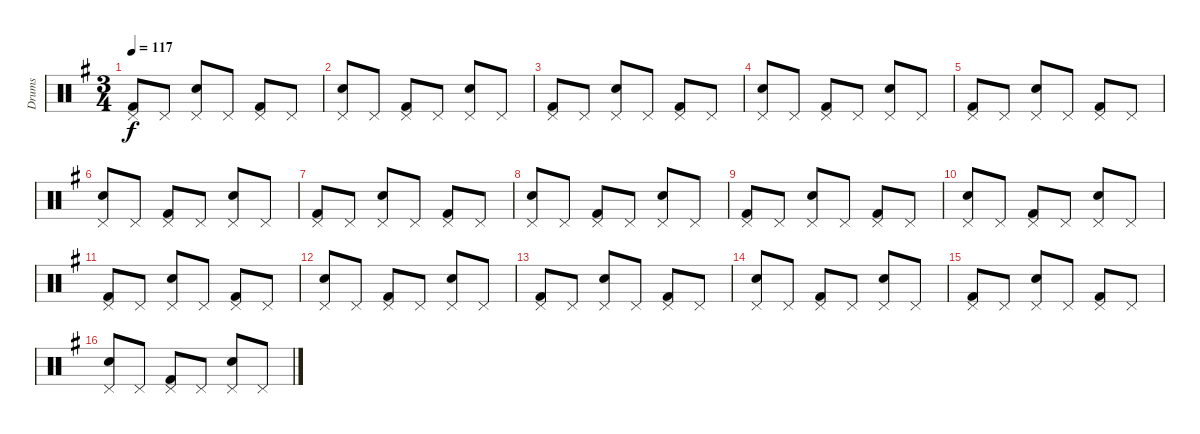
\track ("Drums" "Drums") {instrument percussion}
\staff {score}
\articulation defaults
\ts (3 4)
\tempo 117
\clef neutral
\ks g
("Pedal Hi-Hat (hit)" "Kick (hit) 2").8{dy f} "Pedal Hi-Hat (hit)".8 ("Pedal Hi-Hat (hit)" "Snare (hit) 2").8 "Pedal Hi-Hat (hit)".8 ("Pedal Hi-Hat (hit)" "Kick (hit) 2").8 "Pedal Hi-Hat (hit)".8 |
("Pedal Hi-Hat (hit)" "Snare (hit) 2").8 "Pedal Hi-Hat (hit)".8 ("Pedal Hi-Hat (hit)" "Kick (hit) 2").8 "Pedal Hi-Hat (hit)".8 ("Pedal Hi-Hat (hit)" "Snare (hit) 2").8 "Pedal Hi-Hat (hit)".8 |
("Pedal Hi-Hat (hit)" "Kick (hit) 2").8 "Pedal Hi-Hat (hit)".8 ("Pedal Hi-Hat (hit)" "Snare (hit) 2").8 "Pedal Hi-Hat (hit)".8 ("Pedal Hi-Hat (hit)" "Kick (hit) 2").8 "Pedal Hi-Hat (hit)".8 |
("Pedal Hi-Hat (hit)" "Snare (hit) 2").8 "Pedal Hi-Hat (hit)".8 ("Pedal Hi-Hat (hit)" "Kick (hit) 2").8 "Pedal Hi-Hat (hit)".8 ("Pedal Hi-Hat (hit)" "Snare (hit) 2").8 "Pedal Hi-Hat (hit)".8 |
("Pedal Hi-Hat (hit)" "Kick (hit) 2").8 "Pedal Hi-Hat (hit)".8 ("Pedal Hi-Hat (hit)" "Snare (hit) 2").8 "Pedal Hi-Hat (hit)".8 ("Pedal Hi-Hat (hit)" "Kick (hit) 2").8 "Pedal Hi-Hat (hit)".8 |
("Pedal Hi-Hat (hit)" "Snare (hit) 2").8 "Pedal Hi-Hat (hit)".8 ("Pedal Hi-Hat (hit)" "Kick (hit) 2").8 "Pedal Hi-Hat (hit)".8 ("Pedal Hi-Hat (hit)" "Snare (hit) 2").8 "Pedal Hi-Hat (hit)".8 |
("Pedal Hi-Hat (hit)" "Kick (hit) 2").8 "Pedal Hi-Hat (hit)".8 ("Pedal Hi-Hat (hit)" "Snare (hit) 2").8 "Pedal Hi-Hat (hit)".8 ("Pedal Hi-Hat (hit)" "Kick (hit) 2").8 "Pedal Hi-Hat (hit)".8 |
("Pedal Hi-Hat (hit)" "Snare (hit) 2").8 "Pedal Hi-Hat (hit)".8 ("Pedal Hi-Hat (hit)" "Kick (hit) 2").8 "Pedal Hi-Hat (hit)".8 ("Pedal Hi-Hat (hit)" "Snare (hit) 2").8 "Pedal Hi-Hat (hit)".8 |
("Pedal Hi-Hat (hit)" "Kick (hit) 2").8 "Pedal Hi-Hat (hit)".8 ("Pedal Hi-Hat (hit)" "Snare (hit) 2").8 "Pedal Hi-Hat (hit)".8 ("Pedal Hi-Hat (hit)" "Kick (hit) 2").8 "Pedal Hi-Hat (hit)".8 |
("Pedal Hi-Hat (hit)" "Snare (hit) 2").8 "Pedal Hi-Hat (hit)".8 ("Pedal Hi-Hat (hit)" "Kick (hit) 2").8 "Pedal Hi-Hat (hit)".8 ("Pedal Hi-Hat (hit)" "Snare (hit) 2").8 "Pedal Hi-Hat (hit)".8 |
("Pedal Hi-Hat (hit)" "Kick (hit) 2").8 "Pedal Hi-Hat (hit)".8 ("Pedal Hi-Hat (hit)" "Snare (hit) 2").8 "Pedal Hi-Hat (hit)".8 ("Pedal Hi-Hat (hit)" "Kick (hit) 2").8 "Pedal Hi-Hat (hit)".8 |
("Pedal Hi-Hat (hit)" "Snare (hit) 2").8 "Pedal Hi-Hat (hit)".8 ("Pedal Hi-Hat (hit)" "Kick (hit) 2").8 "Pedal Hi-Hat (hit)".8 ("Pedal Hi-Hat (hit)" "Snare (hit) 2").8 "Pedal Hi-Hat (hit)".8 |
("Pedal Hi-Hat (hit)" "Kick (hit) 2").8 "Pedal Hi-Hat (hit)".8 ("Pedal Hi-Hat (hit)" "Snare (hit) 2").8 "Pedal Hi-Hat (hit)".8 ("Pedal Hi-Hat (hit)" "Kick (hit) 2").8 "Pedal Hi-Hat (hit)".8 |
("Pedal Hi-Hat (hit)" "Snare (hit) 2").8 "Pedal Hi-Hat (hit)".8 ("Pedal Hi-Hat (hit)" "Kick (hit) 2").8 "Pedal Hi-Hat (hit)".8 ("Pedal Hi-Hat (hit)" "Snare (hit) 2").8 "Pedal Hi-Hat (hit)".8 |
("Pedal Hi-Hat (hit)" "Kick (hit) 2").8 "Pedal Hi-Hat (hit)".8 ("Pedal Hi-Hat (hit)" "Snare (hit) 2").8 "Pedal Hi-Hat (hit)".8 ("Pedal Hi-Hat (hit)" "Kick (hit) 2").8 "Pedal Hi-Hat (hit)".8 |
("Pedal Hi-Hat (hit)" "Snare (hit) 2").8 "Pedal Hi-Hat (hit)".8 ("Pedal Hi-Hat (hit)" "Kick (hit) 2").8 "Pedal Hi-Hat (hit)".8 ("Pedal Hi-Hat (hit)" "Snare (hit) 2").8 "Pedal Hi-Hat (hit)".8
